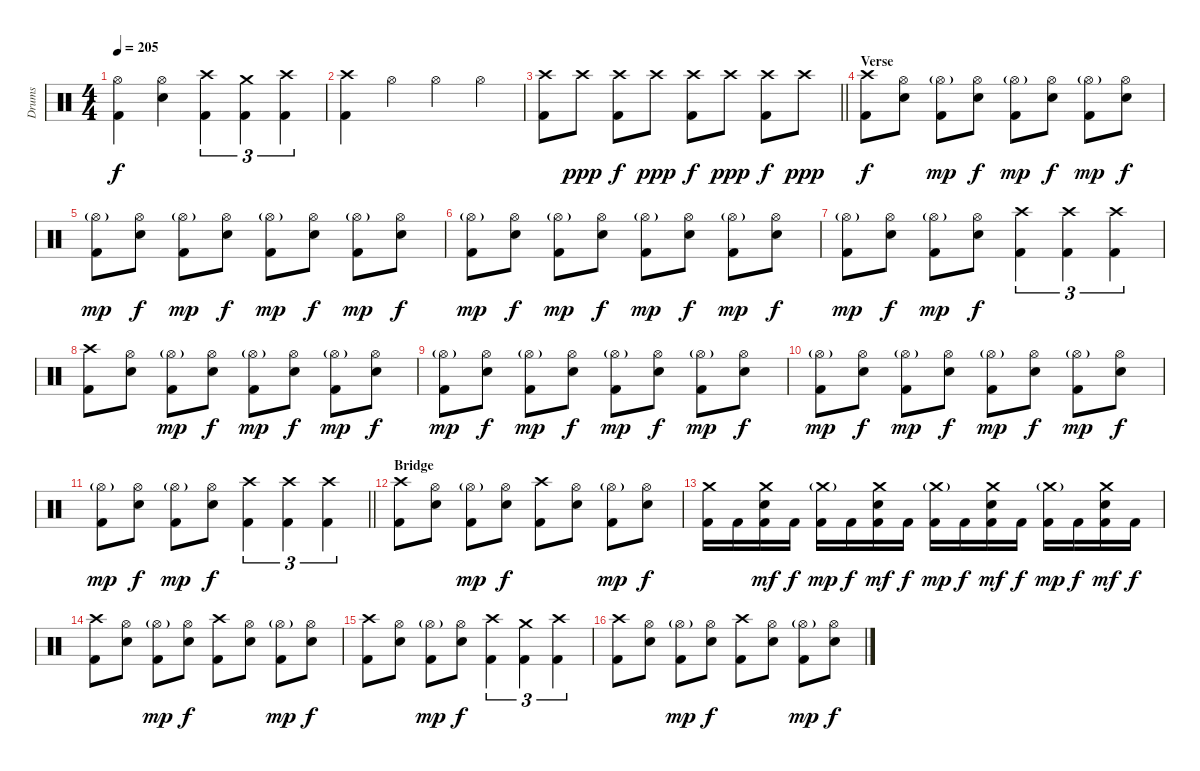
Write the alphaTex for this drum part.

\track ("Drums" "Drums") {instrument percussion}
\staff {score}
\articulation defaults
\ts (4 4)
\tempo 205
\clef neutral
\ks c
("Hi-Hat (open)" "Kick (hit) 2").4{dy f} ("Hi-Hat (open)" "Electric Snare (hit)").4 ("Crash high (hit)" "Kick (hit) 2").4{tu (3 2)} ("Crash medium (hit)" "Kick (hit) 2").4{tu (3 2)} ("Crash high (hit)" "Kick (hit) 2").4{tu (3 2)} |
("Crash high (hit)" "Kick (hit) 2").4 "Hi-Hat (open)".4 "Hi-Hat (open)".4 "Hi-Hat (open)".4 |
\barLineRight lightlight
("Crash high (hit)" "Kick (hit) 2").8 "Crash high (hit)".8{dy ppp} ("Crash high (hit)" "Kick (hit) 2").8{dy f} "Crash high (hit)".8{dy ppp} ("Crash high (hit)" "Kick (hit) 2").8{dy f} "Crash high (hit)".8{dy ppp} ("Crash high (hit)" "Kick (hit) 2").8{dy f} "Crash high (hit)".8{dy ppp} |
\section ("" "Verse")
("Crash high (hit)" "Kick (hit) 2").8{dy f} ("Hi-Hat (open)" "Electric Snare (hit)").8 ("Hi-Hat (open)"{g} "Kick (hit) 2").8{dy mp} ("Hi-Hat (open)" "Electric Snare (hit)").8{dy f} ("Hi-Hat (open)"{g} "Kick (hit) 2").8{dy mp} ("Hi-Hat (open)" "Electric Snare (hit)").8{dy f} ("Hi-Hat (open)"{g} "Kick (hit) 2").8{dy mp} ("Hi-Hat (open)" "Electric Snare (hit)").8{dy f} |
("Hi-Hat (open)"{g} "Kick (hit) 2").8{dy mp} ("Hi-Hat (open)" "Electric Snare (hit)").8{dy f} ("Hi-Hat (open)"{g} "Kick (hit) 2").8{dy mp} ("Hi-Hat (open)" "Electric Snare (hit)").8{dy f} ("Hi-Hat (open)"{g} "Kick (hit) 2").8{dy mp} ("Hi-Hat (open)" "Electric Snare (hit)").8{dy f} ("Hi-Hat (open)"{g} "Kick (hit) 2").8{dy mp} ("Hi-Hat (open)" "Electric Snare (hit)").8{dy f} |
("Hi-Hat (open)"{g} "Kick (hit) 2").8{dy mp} ("Hi-Hat (open)" "Electric Snare (hit)").8{dy f} ("Hi-Hat (open)"{g} "Kick (hit) 2").8{dy mp} ("Hi-Hat (open)" "Electric Snare (hit)").8{dy f} ("Hi-Hat (open)"{g} "Kick (hit) 2").8{dy mp} ("Hi-Hat (open)" "Electric Snare (hit)").8{dy f} ("Hi-Hat (open)"{g} "Kick (hit) 2").8{dy mp} ("Hi-Hat (open)" "Electric Snare (hit)").8{dy f} |
("Hi-Hat (open)"{g} "Kick (hit) 2").8{dy mp} ("Hi-Hat (open)" "Electric Snare (hit)").8{dy f} ("Hi-Hat (open)"{g} "Kick (hit) 2").8{dy mp} ("Hi-Hat (open)" "Electric Snare (hit)").8{dy f} ("Crash high (hit)" "Kick (hit) 2").4{tu (3 2)} ("Crash high (hit)" "Kick (hit) 2").4{tu (3 2)} ("Crash high (hit)" "Kick (hit) 2").4{tu (3 2)} |
("Crash high (hit)" "Kick (hit) 2").8 ("Hi-Hat (open)" "Electric Snare (hit)").8 ("Hi-Hat (open)"{g} "Kick (hit) 2").8{dy mp} ("Hi-Hat (open)" "Electric Snare (hit)").8{dy f} ("Hi-Hat (open)"{g} "Kick (hit) 2").8{dy mp} ("Hi-Hat (open)" "Electric Snare (hit)").8{dy f} ("Hi-Hat (open)"{g} "Kick (hit) 2").8{dy mp} ("Hi-Hat (open)" "Electric Snare (hit)").8{dy f} |
("Hi-Hat (open)"{g} "Kick (hit) 2").8{dy mp} ("Hi-Hat (open)" "Electric Snare (hit)").8{dy f} ("Hi-Hat (open)"{g} "Kick (hit) 2").8{dy mp} ("Hi-Hat (open)" "Electric Snare (hit)").8{dy f} ("Hi-Hat (open)"{g} "Kick (hit) 2").8{dy mp} ("Hi-Hat (open)" "Electric Snare (hit)").8{dy f} ("Hi-Hat (open)"{g} "Kick (hit) 2").8{dy mp} ("Hi-Hat (open)" "Electric Snare (hit)").8{dy f} |
("Hi-Hat (open)"{g} "Kick (hit) 2").8{dy mp} ("Hi-Hat (open)" "Electric Snare (hit)").8{dy f} ("Hi-Hat (open)"{g} "Kick (hit) 2").8{dy mp} ("Hi-Hat (open)" "Electric Snare (hit)").8{dy f} ("Hi-Hat (open)"{g} "Kick (hit) 2").8{dy mp} ("Hi-Hat (open)" "Electric Snare (hit)").8{dy f} ("Hi-Hat (open)"{g} "Kick (hit) 2").8{dy mp} ("Hi-Hat (open)" "Electric Snare (hit)").8{dy f} |
\barLineRight lightlight
("Hi-Hat (open)"{g} "Kick (hit) 2").8{dy mp} ("Hi-Hat (open)" "Electric Snare (hit)").8{dy f} ("Hi-Hat (open)"{g} "Kick (hit) 2").8{dy mp} ("Hi-Hat (open)" "Electric Snare (hit)").8{dy f} ("Crash high (hit)" "Kick (hit) 2").4{tu (3 2)} ("Crash high (hit)" "Kick (hit) 2").4{tu (3 2)} ("Crash high (hit)" "Kick (hit) 2").4{tu (3 2)} |
\section ("" "Bridge")
("Crash high (hit)" "Kick (hit) 2").8 ("Hi-Hat (open)" "Electric Snare (hit)").8 ("Hi-Hat (open)"{g} "Kick (hit) 2").8{dy mp} ("Hi-Hat (open)" "Electric Snare (hit)").8{dy f} ("Crash high (hit)" "Kick (hit) 2").8 ("Hi-Hat (open)" "Electric Snare (hit)").8 ("Hi-Hat (open)"{g} "Kick (hit) 2").8{dy mp} ("Hi-Hat (open)" "Electric Snare (hit)").8{dy f} |
("Crash medium (hit)" "Kick (hit) 2").16 "Kick (hit) 2".16 ("Crash medium (hit)" "Electric Snare (hit)" "Kick (hit) 2").16{dy mf} "Kick (hit) 2".16{dy f} ("Crash medium (hit)"{g} "Kick (hit) 2").16{dy mp} "Kick (hit) 2".16{dy f} ("Crash medium (hit)" "Electric Snare (hit)" "Kick (hit) 2").16{dy mf} "Kick (hit) 2".16{dy f} ("Crash medium (hit)"{g} "Kick (hit) 2").16{dy mp} "Kick (hit) 2".16{dy f} ("Crash medium (hit)" "Electric Snare (hit)" "Kick (hit) 2").16{dy mf} "Kick (hit) 2".16{dy f} ("Crash medium (hit)"{g} "Kick (hit) 2").16{dy mp} "Kick (hit) 2".16{dy f} ("Crash medium (hit)" "Electric Snare (hit)" "Kick (hit) 2").16{dy mf} "Kick (hit) 2".16{dy f} |
("Crash high (hit)" "Kick (hit) 2").8 ("Hi-Hat (open)" "Electric Snare (hit)").8 ("Hi-Hat (open)"{g} "Kick (hit) 2").8{dy mp} ("Hi-Hat (open)" "Electric Snare (hit)").8{dy f} ("Crash high (hit)" "Kick (hit) 2").8 ("Hi-Hat (open)" "Electric Snare (hit)").8 ("Hi-Hat (open)"{g} "Kick (hit) 2").8{dy mp} ("Hi-Hat (open)" "Electric Snare (hit)").8{dy f} |
("Crash high (hit)" "Kick (hit) 2").8 ("Hi-Hat (open)" "Electric Snare (hit)").8 ("Hi-Hat (open)"{g} "Kick (hit) 2").8{dy mp} ("Hi-Hat (open)" "Electric Snare (hit)").8{dy f} ("Crash high (hit)" "Kick (hit) 2").4{tu (3 2)} ("Crash medium (hit)" "Kick (hit) 2").4{tu (3 2)} ("Crash high (hit)" "Kick (hit) 2").4{tu (3 2)} |
("Crash high (hit)" "Kick (hit) 2").8 ("Hi-Hat (open)" "Electric Snare (hit)").8 ("Hi-Hat (open)"{g} "Kick (hit) 2").8{dy mp} ("Hi-Hat (open)" "Electric Snare (hit)").8{dy f} ("Crash high (hit)" "Kick (hit) 2").8 ("Hi-Hat (open)" "Electric Snare (hit)").8 ("Hi-Hat (open)"{g} "Kick (hit) 2").8{dy mp} ("Hi-Hat (open)" "Electric Snare (hit)").8{dy f}
